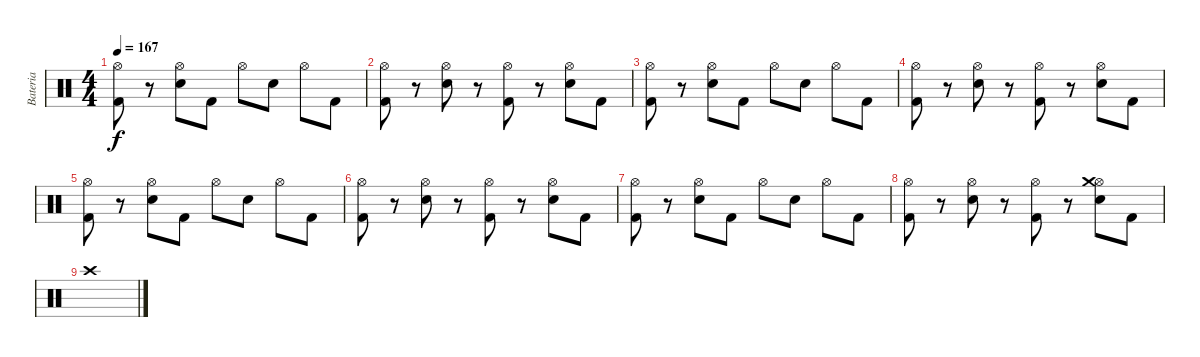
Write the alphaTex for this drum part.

\track ("Bateria" "Bateria") {instrument percussion}
\staff {score}
\articulation defaults
\ts (4 4)
\tempo 167
\clef neutral
\ks c
("Kick (hit) 2" "Hi-Hat (open)").8{dy f} r.8 ("Snare (hit) 2" "Hi-Hat (open)").8 "Kick (hit) 2".8 "Hi-Hat (open)".8 "Snare (hit) 2".8 "Hi-Hat (open)".8 "Kick (hit) 2".8 |
("Kick (hit) 2" "Hi-Hat (open)").8 r.8 ("Snare (hit) 2" "Hi-Hat (open)").8 r.8 ("Kick (hit) 2" "Hi-Hat (open)").8 r.8 ("Snare (hit) 2" "Hi-Hat (open)").8 "Kick (hit) 2".8 |
("Kick (hit) 2" "Hi-Hat (open)").8 r.8 ("Snare (hit) 2" "Hi-Hat (open)").8 "Kick (hit) 2".8 "Hi-Hat (open)".8 "Snare (hit) 2".8 "Hi-Hat (open)".8 "Kick (hit) 2".8 |
("Kick (hit) 2" "Hi-Hat (open)").8 r.8 ("Snare (hit) 2" "Hi-Hat (open)").8 r.8 ("Kick (hit) 2" "Hi-Hat (open)").8 r.8 ("Snare (hit) 2" "Hi-Hat (open)").8 "Kick (hit) 2".8 |
("Kick (hit) 2" "Hi-Hat (open)").8 r.8 ("Snare (hit) 2" "Hi-Hat (open)").8 "Kick (hit) 2".8 "Hi-Hat (open)".8 "Snare (hit) 2".8 "Hi-Hat (open)".8 "Kick (hit) 2".8 |
("Kick (hit) 2" "Hi-Hat (open)").8 r.8 ("Snare (hit) 2" "Hi-Hat (open)").8 r.8 ("Kick (hit) 2" "Hi-Hat (open)").8 r.8 ("Snare (hit) 2" "Hi-Hat (open)").8 "Kick (hit) 2".8 |
("Kick (hit) 2" "Hi-Hat (open)").8 r.8 ("Snare (hit) 2" "Hi-Hat (open)").8 "Kick (hit) 2".8 "Hi-Hat (open)".8 "Snare (hit) 2".8 "Hi-Hat (open)".8 "Kick (hit) 2".8 |
("Kick (hit) 2" "Hi-Hat (open)").8 r.8 ("Snare (hit) 2" "Hi-Hat (open)").8 r.8 ("Kick (hit) 2" "Hi-Hat (open)").8 r.8 ("Snare (hit) 2" "Hi-Hat (open)" "Crash medium (hit)").8 "Kick (hit) 2".8 |
"Crash high (hit)".1
